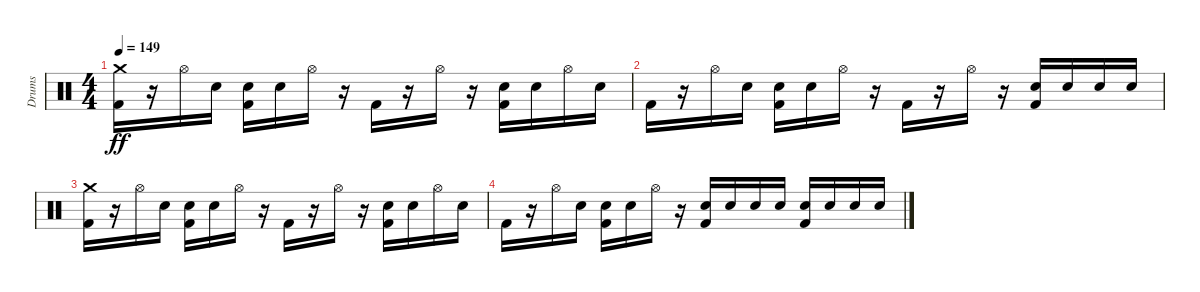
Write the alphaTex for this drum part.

\track ("Drums" "Drums") {instrument percussion}
\staff {score}
\articulation defaults
\ts (4 4)
\tempo 149
\clef neutral
\ks c
("Crash medium (hit)" "Kick (hit) 2").16{dy ff} r.16 "Hi-Hat (open)".16 "Electric Snare (hit)".16 ("Electric Snare (hit)" "Kick (hit) 2").16 "Electric Snare (hit)".16 "Hi-Hat (open)".16 r.16 "Kick (hit) 2".16 r.16 "Hi-Hat (open)".16 r.16 ("Electric Snare (hit)" "Kick (hit) 2").16 "Electric Snare (hit)".16 "Hi-Hat (open)".16 "Electric Snare (hit)".16 |
"Kick (hit) 2".16 r.16 "Hi-Hat (open)".16 "Electric Snare (hit)".16 ("Electric Snare (hit)" "Kick (hit) 2").16 "Electric Snare (hit)".16 "Hi-Hat (open)".16 r.16 "Kick (hit) 2".16 r.16 "Hi-Hat (open)".16 r.16 ("Electric Snare (hit)" "Kick (hit) 2").16 "Electric Snare (hit)".16 "Electric Snare (hit)".16 "Electric Snare (hit)".16 |
("Crash medium (hit)" "Kick (hit) 2").16 r.16 "Hi-Hat (open)".16 "Electric Snare (hit)".16 ("Electric Snare (hit)" "Kick (hit) 2").16 "Electric Snare (hit)".16 "Hi-Hat (open)".16 r.16 "Kick (hit) 2".16 r.16 "Hi-Hat (open)".16 r.16 ("Electric Snare (hit)" "Kick (hit) 2").16 "Electric Snare (hit)".16 "Hi-Hat (open)".16 "Electric Snare (hit)".16 |
"Kick (hit) 2".16 r.16 "Hi-Hat (open)".16 "Electric Snare (hit)".16 ("Electric Snare (hit)" "Kick (hit) 2").16 "Electric Snare (hit)".16 "Hi-Hat (open)".16 r.16 ("Electric Snare (hit)" "Kick (hit) 2").16 "Electric Snare (hit)".16 "Electric Snare (hit)".16 "Electric Snare (hit)".16 ("Electric Snare (hit)" "Kick (hit) 2").16 "Electric Snare (hit)".16 "Electric Snare (hit)".16 "Electric Snare (hit)".16
